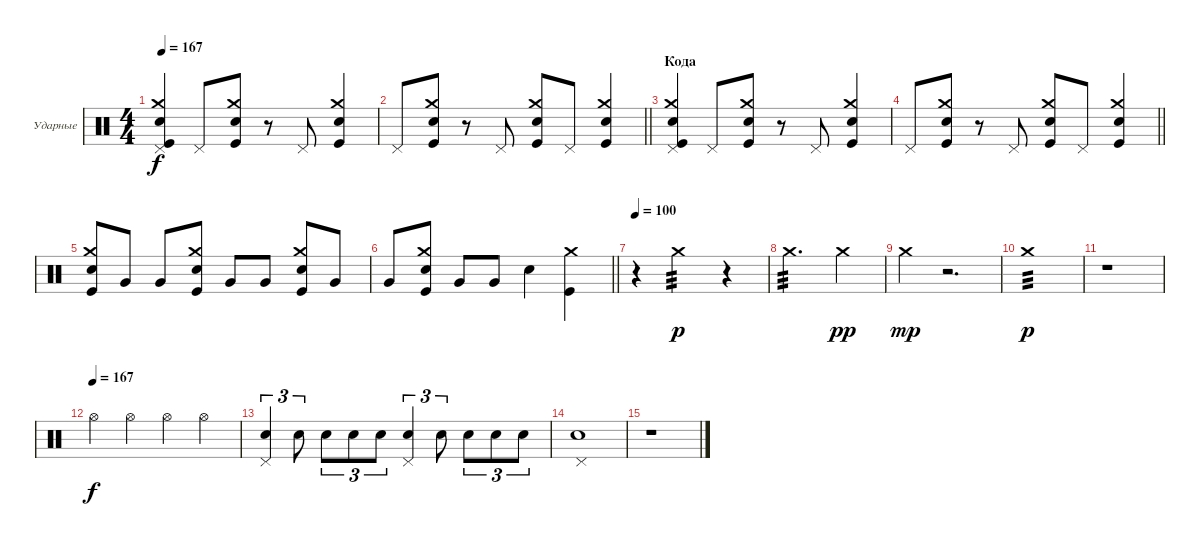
\bracketExtendMode groupsimilarinstruments
\firstSystemTrackNameOrientation horizontal
\otherSystemsTrackNameOrientation horizontal
\track ("Максим Удалов" "Ударные") {instrument percussion}
\staff {score}
\articulation defaults
\ts (4 4)
\tempo 167
\clef neutral
\ks aminor
("Snare (hit) 2" "Crash medium (hit)" "Kick (hit)" "Pedal Hi-Hat (hit)").4{dy f} "Pedal Hi-Hat (hit)".8 ("Crash medium (hit)" "Kick (hit)" "Snare (hit) 2").8 r.8 "Pedal Hi-Hat (hit)".8 ("Crash medium (hit)" "Snare (hit) 2" "Kick (hit)").4 |
\barLineRight lightlight "Pedal Hi-Hat (hit)".8
("Crash medium (hit)" "Kick (hit)" "Snare (hit) 2").8 r.8 "Pedal Hi-Hat (hit)".8 ("Kick (hit)" "Snare (hit) 2" "Crash medium (hit)").8 "Pedal Hi-Hat (hit)".8 ("Kick (hit)" "Snare (hit) 2" "Crash medium (hit)").4 |
\section ("" "Кода")
("Snare (hit) 2" "Crash medium (hit)" "Kick (hit)" "Pedal Hi-Hat (hit)").4 "Pedal Hi-Hat (hit)".8 ("Crash medium (hit)" "Kick (hit)" "Snare (hit) 2").8 r.8 "Pedal Hi-Hat (hit)".8 ("Crash medium (hit)" "Snare (hit) 2" "Kick (hit)").4 |
\barLineRight lightlight "Pedal Hi-Hat (hit)".8
("Crash medium (hit)" "Kick (hit)" "Snare (hit) 2").8 r.8 "Pedal Hi-Hat (hit)".8 ("Crash medium (hit)" "Snare (hit) 2" "Kick (hit)").8 "Pedal Hi-Hat (hit)".8 ("Kick (hit)" "Crash medium (hit)" "Snare (hit) 2").4 |
("Kick (hit)" "Snare (hit) 2" "Crash medium (hit)").8 "Very Low Tom (hit)".8 "Very Low Tom (hit)".8 ("Snare (hit) 2" "Crash medium (hit)" "Kick (hit)").8 "Very Low Tom (hit)".8 "Very Low Tom (hit)".8 ("Snare (hit) 2" "Kick (hit)" "Crash medium (hit)").8 "Very Low Tom (hit)".8 |
\barLineRight lightlight "Very Low Tom (hit)".8
("Snare (hit) 2" "Kick (hit)" "Crash medium (hit)").8 "Very Low Tom (hit)".8 "Very Low Tom (hit)".8 "Snare (hit) 2".4 ("Kick (hit)" "Crash medium (hit)").4 |
\tempo 100
r.4 "Crash medium (hit)".2{tp 3 dy p} r.4 |
"Crash medium (hit)".2{d tp 3} "Crash medium (hit)".4{dy pp} |
"Crash medium (hit)".4{dy mp} r.2{d} |
"Crash medium (hit)".1{tp 3 dy p} |
r.1 |
\tempo (167)
"Hi-Hat (open)".4{dy f} "Hi-Hat (open)".4 "Hi-Hat (open)".4 "Hi-Hat (open)".4 |
("Snare (hit) 2" "Pedal Hi-Hat (hit)").4{tu (3 2)} "Snare (hit) 2".8{tu (3 2)} "Snare (hit) 2".8{tu (3 2)} "Snare (hit) 2".8{tu (3 2)} "Snare (hit) 2".8{tu (3 2)} ("Snare (hit) 2" "Pedal Hi-Hat (hit)").4{tu (3 2)} "Snare (hit) 2".8{tu (3 2)} "Snare (hit) 2".8{tu (3 2)} "Snare (hit) 2".8{tu (3 2)} "Snare (hit) 2".8{tu (3 2)} |
("Snare (hit) 2" "Pedal Hi-Hat (hit)").1 |
r.1
